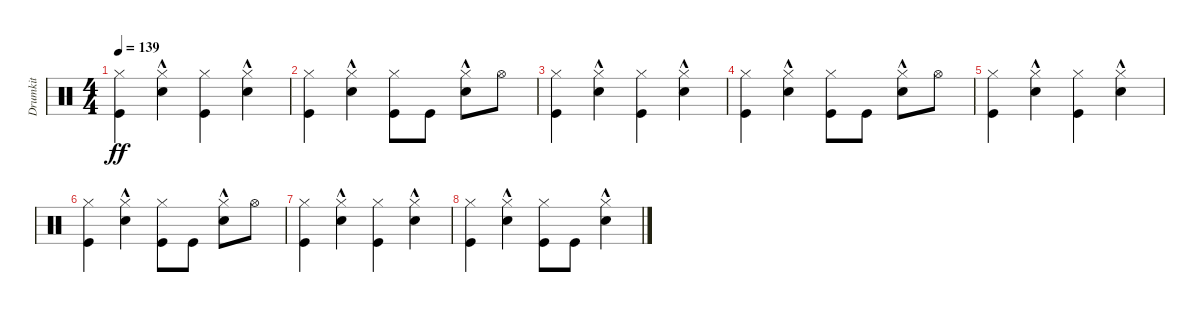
\track ("Drumkit" "Drumkit") {instrument percussion}
\staff {score}
\articulation defaults
\ts (4 4)
\tempo 139
\clef neutral
\ks c
("Hi-Hat (closed)" "Kick (hit)").4{dy ff} ("Hi-Hat (closed)" "Snare (hit) 2"{hac}).4 ("Hi-Hat (closed)" "Kick (hit)").4 ("Hi-Hat (closed)" "Snare (hit) 2"{hac}).4 |
("Hi-Hat (closed)" "Kick (hit)").4 ("Snare (hit) 2"{hac} "Hi-Hat (closed)").4 ("Hi-Hat (closed)" "Kick (hit)").8 "Kick (hit)".8 ("Snare (hit) 2"{hac} "Hi-Hat (closed)").8 "Hi-Hat (open)".8 |
("Kick (hit)" "Hi-Hat (closed)").4 ("Snare (hit) 2"{hac} "Hi-Hat (closed)").4 ("Kick (hit)" "Hi-Hat (closed)").4 ("Snare (hit) 2"{hac} "Hi-Hat (closed)").4 |
("Hi-Hat (closed)" "Kick (hit)").4 ("Hi-Hat (closed)" "Snare (hit) 2"{hac}).4 ("Hi-Hat (closed)" "Kick (hit)").8 "Kick (hit)".8 ("Hi-Hat (closed)" "Snare (hit) 2"{hac}).8 "Hi-Hat (open)".8 |
("Hi-Hat (closed)" "Kick (hit)").4{volume 3} ("Hi-Hat (closed)" "Snare (hit) 2"{hac}).4 ("Hi-Hat (closed)" "Kick (hit)").4 ("Hi-Hat (closed)" "Snare (hit) 2"{hac}).4 |
("Hi-Hat (closed)" "Kick (hit)").4 ("Snare (hit) 2"{hac} "Hi-Hat (closed)").4 ("Hi-Hat (closed)" "Kick (hit)").8 "Kick (hit)".8 ("Snare (hit) 2"{hac} "Hi-Hat (closed)").8 "Hi-Hat (open)".8 |
("Kick (hit)" "Hi-Hat (closed)").4 ("Snare (hit) 2"{hac} "Hi-Hat (closed)").4 ("Kick (hit)" "Hi-Hat (closed)").4 ("Snare (hit) 2"{hac} "Hi-Hat (closed)").4 |
("Hi-Hat (closed)" "Kick (hit)").4 ("Hi-Hat (closed)" "Snare (hit) 2"{hac}).4 ("Hi-Hat (closed)" "Kick (hit)").8 "Kick (hit)".8 ("Hi-Hat (closed)" "Snare (hit) 2"{hac}).4
